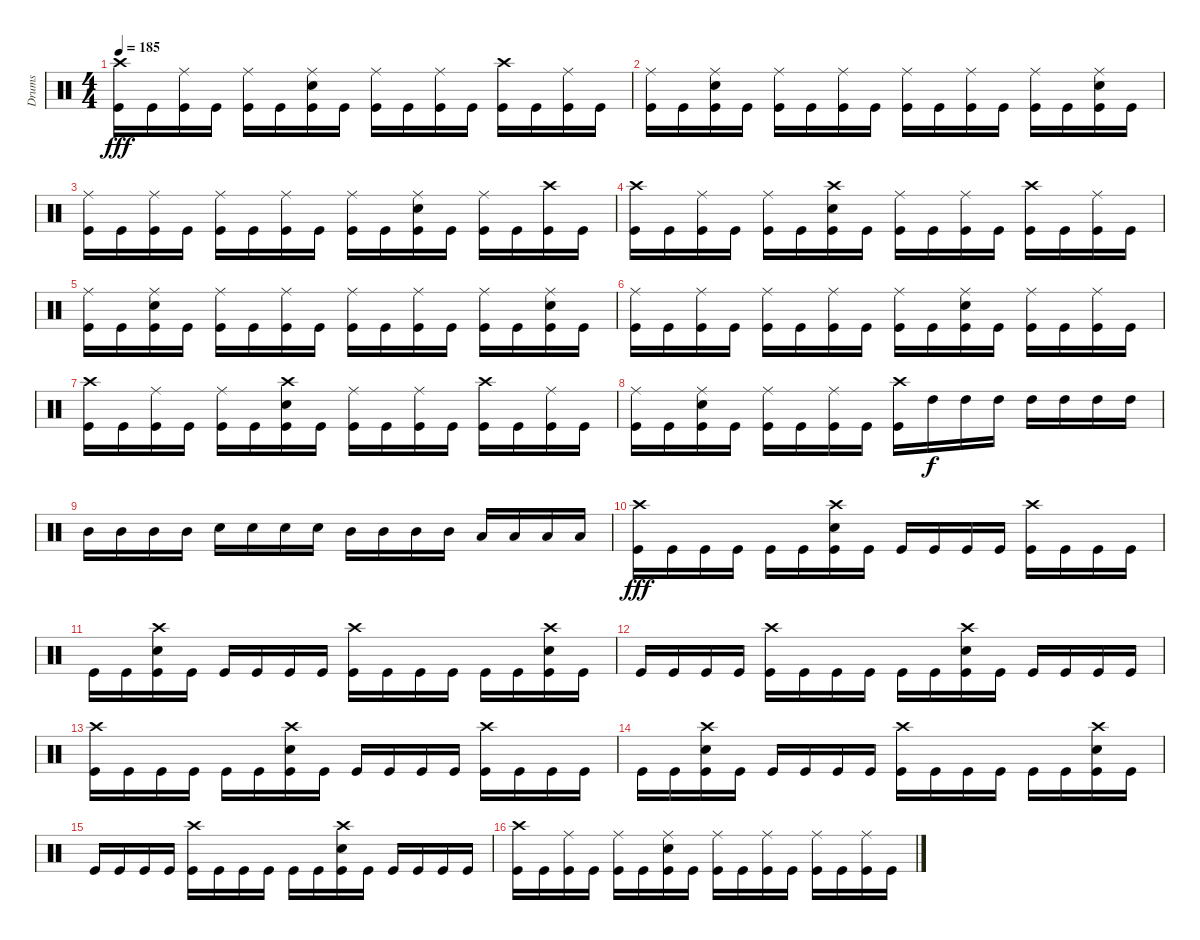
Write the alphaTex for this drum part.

\track ("Drums" "Drums") {instrument percussion}
\staff {score}
\articulation defaults
\ts (4 4)
\tempo 185
\clef neutral
\ks c
("Crash high (hit)" "Kick (hit)").16{dy fff} "Kick (hit)".16 ("Ride (middle)" "Kick (hit)").16 "Kick (hit)".16 ("Ride (middle)" "Kick (hit)").16 "Kick (hit)".16 ("Ride (middle)" "Electric Snare (hit)" "Kick (hit)").16 "Kick (hit)".16 ("Ride (middle)" "Kick (hit)").16 "Kick (hit)".16 ("Ride (middle)" "Kick (hit)").16 "Kick (hit)".16 ("Crash high (hit)" "Kick (hit)").16 "Kick (hit)".16 ("Ride (middle)" "Kick (hit)").16 "Kick (hit)".16 |
("Ride (middle)" "Kick (hit)").16 "Kick (hit)".16 ("Ride (middle)" "Electric Snare (hit)" "Kick (hit)").16 "Kick (hit)".16 ("Ride (middle)" "Kick (hit)").16 "Kick (hit)".16 ("Ride (middle)" "Kick (hit)").16 "Kick (hit)".16 ("Ride (middle)" "Kick (hit)").16 "Kick (hit)".16 ("Ride (middle)" "Kick (hit)").16 "Kick (hit)".16 ("Ride (middle)" "Kick (hit)").16 "Kick (hit)".16 ("Ride (middle)" "Electric Snare (hit)" "Kick (hit)").16 "Kick (hit)".16 |
("Ride (middle)" "Kick (hit)").16 "Kick (hit)".16 ("Ride (middle)" "Kick (hit)").16 "Kick (hit)".16 ("Ride (middle)" "Kick (hit)").16 "Kick (hit)".16 ("Ride (middle)" "Kick (hit)").16 "Kick (hit)".16 ("Ride (middle)" "Kick (hit)").16 "Kick (hit)".16 ("Ride (middle)" "Electric Snare (hit)" "Kick (hit)").16 "Kick (hit)".16 ("Ride (middle)" "Kick (hit)").16 "Kick (hit)".16 ("Crash high (hit)" "Kick (hit)").16 "Kick (hit)".16 |
("Crash high (hit)" "Kick (hit)").16 "Kick (hit)".16 ("Ride (middle)" "Kick (hit)").16 "Kick (hit)".16 ("Ride (middle)" "Kick (hit)").16 "Kick (hit)".16 ("Crash high (hit)" "Electric Snare (hit)" "Kick (hit)").16 "Kick (hit)".16 ("Ride (middle)" "Kick (hit)").16 "Kick (hit)".16 ("Ride (middle)" "Kick (hit)").16 "Kick (hit)".16 ("Crash high (hit)" "Kick (hit)").16 "Kick (hit)".16 ("Ride (middle)" "Kick (hit)").16 "Kick (hit)".16 |
("Ride (middle)" "Kick (hit)").16 "Kick (hit)".16 ("Ride (middle)" "Electric Snare (hit)" "Kick (hit)").16 "Kick (hit)".16 ("Ride (middle)" "Kick (hit)").16 "Kick (hit)".16 ("Ride (middle)" "Kick (hit)").16 "Kick (hit)".16 ("Ride (middle)" "Kick (hit)").16 "Kick (hit)".16 ("Ride (middle)" "Kick (hit)").16 "Kick (hit)".16 ("Ride (middle)" "Kick (hit)").16 "Kick (hit)".16 ("Ride (middle)" "Electric Snare (hit)" "Kick (hit)").16 "Kick (hit)".16 |
("Ride (middle)" "Kick (hit)").16 "Kick (hit)".16 ("Ride (middle)" "Kick (hit)").16 "Kick (hit)".16 ("Ride (middle)" "Kick (hit)").16 "Kick (hit)".16 ("Ride (middle)" "Kick (hit)").16 "Kick (hit)".16 ("Ride (middle)" "Kick (hit)").16 "Kick (hit)".16 ("Ride (middle)" "Electric Snare (hit)" "Kick (hit)").16 "Kick (hit)".16 ("Ride (middle)" "Kick (hit)").16 "Kick (hit)".16 ("Ride (middle)" "Kick (hit)").16 "Kick (hit)".16 |
("Crash high (hit)" "Kick (hit)").16 "Kick (hit)".16 ("Ride (middle)" "Kick (hit)").16 "Kick (hit)".16 ("Ride (middle)" "Kick (hit)").16 "Kick (hit)".16 ("Crash high (hit)" "Electric Snare (hit)" "Kick (hit)").16 "Kick (hit)".16 ("Ride (middle)" "Kick (hit)").16 "Kick (hit)".16 ("Ride (middle)" "Kick (hit)").16 "Kick (hit)".16 ("Crash high (hit)" "Kick (hit)").16 "Kick (hit)".16 ("Ride (middle)" "Kick (hit)").16 "Kick (hit)".16 |
("Ride (middle)" "Kick (hit)").16 "Kick (hit)".16 ("Ride (middle)" "Electric Snare (hit)" "Kick (hit)").16 "Kick (hit)".16 ("Ride (middle)" "Kick (hit)").16 "Kick (hit)".16 ("Ride (middle)" "Kick (hit)").16 "Kick (hit)".16 ("Crash high (hit)" "Kick (hit)").16 "High Tom (hit)".16{dy f} "High Tom (hit)".16 "High Tom (hit)".16 "High Tom (hit)".16 "High Tom (hit)".16 "High Tom (hit)".16 "High Tom (hit)".16 |
"Mid Tom (hit)".16 "Mid Tom (hit)".16 "Mid Tom (hit)".16 "Mid Tom (hit)".16 "Electric Snare (hit)".16 "Electric Snare (hit)".16 "Electric Snare (hit)".16 "Electric Snare (hit)".16 "Mid Tom (hit)".16 "Mid Tom (hit)".16 "Mid Tom (hit)".16 "Mid Tom (hit)".16 "Low Tom (hit)".16 "Low Tom (hit)".16 "Low Tom (hit)".16 "Low Tom (hit)".16 |
("Crash high (hit)" "Kick (hit)").16{dy fff} "Kick (hit)".16 "Kick (hit)".16 "Kick (hit)".16 "Kick (hit)".16 "Kick (hit)".16 ("Crash high (hit)" "Electric Snare (hit)" "Kick (hit)").16 "Kick (hit)".16 "Kick (hit)".16 "Kick (hit)".16 "Kick (hit)".16 "Kick (hit)".16 ("Crash high (hit)" "Kick (hit)").16 "Kick (hit)".16 "Kick (hit)".16 "Kick (hit)".16 |
"Kick (hit)".16 "Kick (hit)".16 ("Crash high (hit)" "Electric Snare (hit)" "Kick (hit)").16 "Kick (hit)".16 "Kick (hit)".16 "Kick (hit)".16 "Kick (hit)".16 "Kick (hit)".16 ("Crash high (hit)" "Kick (hit)").16 "Kick (hit)".16 "Kick (hit)".16 "Kick (hit)".16 "Kick (hit)".16 "Kick (hit)".16 ("Crash high (hit)" "Electric Snare (hit)" "Kick (hit)").16 "Kick (hit)".16 |
"Kick (hit)".16 "Kick (hit)".16 "Kick (hit)".16 "Kick (hit)".16 ("Crash high (hit)" "Kick (hit)").16 "Kick (hit)".16 "Kick (hit)".16 "Kick (hit)".16 "Kick (hit)".16 "Kick (hit)".16 ("Crash high (hit)" "Electric Snare (hit)" "Kick (hit)").16 "Kick (hit)".16 "Kick (hit)".16 "Kick (hit)".16 "Kick (hit)".16 "Kick (hit)".16 |
("Crash high (hit)" "Kick (hit)").16 "Kick (hit)".16 "Kick (hit)".16 "Kick (hit)".16 "Kick (hit)".16 "Kick (hit)".16 ("Crash high (hit)" "Electric Snare (hit)" "Kick (hit)").16 "Kick (hit)".16 "Kick (hit)".16 "Kick (hit)".16 "Kick (hit)".16 "Kick (hit)".16 ("Crash high (hit)" "Kick (hit)").16 "Kick (hit)".16 "Kick (hit)".16 "Kick (hit)".16 |
"Kick (hit)".16 "Kick (hit)".16 ("Crash high (hit)" "Electric Snare (hit)" "Kick (hit)").16 "Kick (hit)".16 "Kick (hit)".16 "Kick (hit)".16 "Kick (hit)".16 "Kick (hit)".16 ("Crash high (hit)" "Kick (hit)").16 "Kick (hit)".16 "Kick (hit)".16 "Kick (hit)".16 "Kick (hit)".16 "Kick (hit)".16 ("Crash high (hit)" "Electric Snare (hit)" "Kick (hit)").16 "Kick (hit)".16 |
"Kick (hit)".16 "Kick (hit)".16 "Kick (hit)".16 "Kick (hit)".16 ("Crash high (hit)" "Kick (hit)").16 "Kick (hit)".16 "Kick (hit)".16 "Kick (hit)".16 "Kick (hit)".16 "Kick (hit)".16 ("Crash high (hit)" "Electric Snare (hit)" "Kick (hit)").16 "Kick (hit)".16 "Kick (hit)".16 "Kick (hit)".16 "Kick (hit)".16 "Kick (hit)".16 |
("Crash high (hit)" "Kick (hit)").16 "Kick (hit)".16 ("Ride (middle)" "Kick (hit)").16 "Kick (hit)".16 ("Ride (middle)" "Kick (hit)").16 "Kick (hit)".16 ("Ride (middle)" "Electric Snare (hit)" "Kick (hit)").16 "Kick (hit)".16 ("Ride (middle)" "Kick (hit)").16 "Kick (hit)".16 ("Ride (middle)" "Kick (hit)").16 "Kick (hit)".16 ("Ride (middle)" "Kick (hit)").16 "Kick (hit)".16 ("Ride (middle)" "Kick (hit)").16 "Kick (hit)".16
